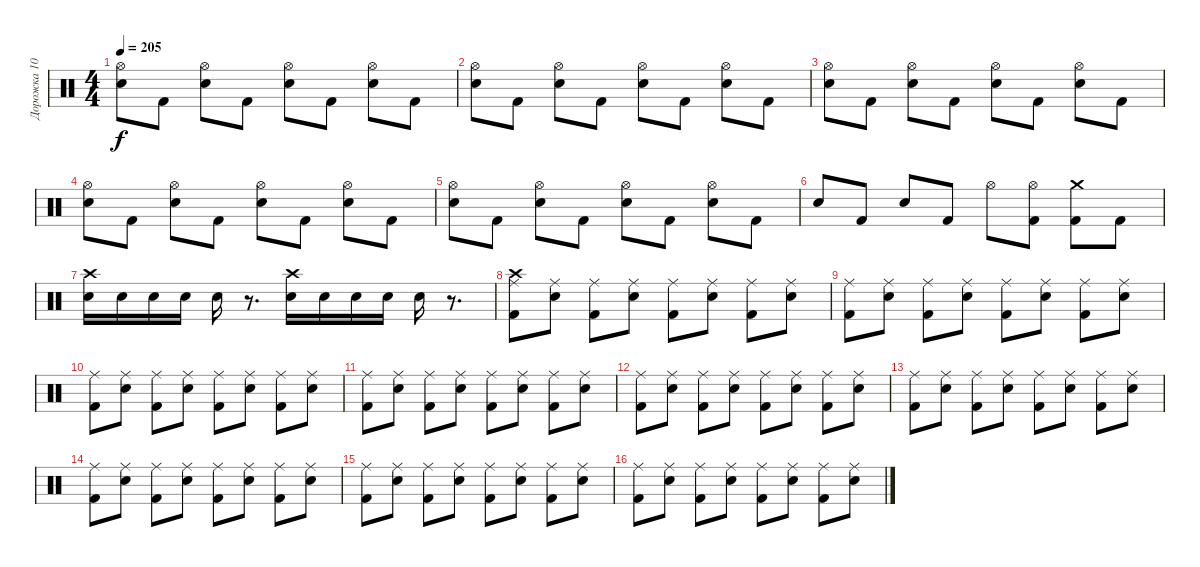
\track ("Дорожка 10" "Дорожка 10") {instrument percussion}
\staff {score}
\articulation defaults
\ts (4 4)
\tempo 205
\clef neutral
\ks c
("Hi-Hat (open)" "Electric Snare (hit)").8{dy f} "Kick (hit) 2".8 ("Hi-Hat (open)" "Electric Snare (hit)").8 "Kick (hit) 2".8 ("Hi-Hat (open)" "Electric Snare (hit)").8 "Kick (hit) 2".8 ("Hi-Hat (open)" "Electric Snare (hit)").8 "Kick (hit) 2".8 |
("Hi-Hat (open)" "Electric Snare (hit)").8 "Kick (hit) 2".8 ("Hi-Hat (open)" "Electric Snare (hit)").8 "Kick (hit) 2".8 ("Hi-Hat (open)" "Electric Snare (hit)").8 "Kick (hit) 2".8 ("Hi-Hat (open)" "Electric Snare (hit)").8 "Kick (hit) 2".8 |
("Hi-Hat (open)" "Electric Snare (hit)").8 "Kick (hit) 2".8 ("Hi-Hat (open)" "Electric Snare (hit)").8 "Kick (hit) 2".8 ("Hi-Hat (open)" "Electric Snare (hit)").8 "Kick (hit) 2".8 ("Hi-Hat (open)" "Electric Snare (hit)").8 "Kick (hit) 2".8 |
("Hi-Hat (open)" "Electric Snare (hit)").8 "Kick (hit) 2".8 ("Hi-Hat (open)" "Electric Snare (hit)").8 "Kick (hit) 2".8 ("Hi-Hat (open)" "Electric Snare (hit)").8 "Kick (hit) 2".8 ("Hi-Hat (open)" "Electric Snare (hit)").8 "Kick (hit) 2".8 |
("Hi-Hat (open)" "Electric Snare (hit)").8 "Kick (hit) 2".8 ("Hi-Hat (open)" "Electric Snare (hit)").8 "Kick (hit) 2".8 ("Hi-Hat (open)" "Electric Snare (hit)").8 "Kick (hit) 2".8 ("Hi-Hat (open)" "Electric Snare (hit)").8 "Kick (hit) 2".8 |
"Electric Snare (hit)".8 "Kick (hit) 2".8 "Electric Snare (hit)".8 "Kick (hit) 2".8 "Hi-Hat (open)".8 ("Hi-Hat (open)" "Kick (hit) 2").8 ("Crash medium (hit)" "Kick (hit) 2").8 "Kick (hit) 2".8 |
("Crash high (hit)" "Snare (hit) 2").16 "Snare (hit) 2".16 "Snare (hit) 2".16 "Snare (hit) 2".16 "Snare (hit) 2".16 r.8{d} ("Crash high (hit)" "Snare (hit) 2").16 "Snare (hit) 2".16 "Snare (hit) 2".16 "Snare (hit) 2".16 "Snare (hit) 2".16 r.8{d} |
("Crash high (hit)" "Ride (middle)" "Kick (hit) 2").8 ("Ride (middle)" "Snare (hit) 2").8 ("Ride (middle)" "Kick (hit) 2").8 ("Ride (middle)" "Snare (hit) 2").8 ("Ride (middle)" "Kick (hit) 2").8 ("Ride (middle)" "Snare (hit) 2").8 ("Ride (middle)" "Kick (hit) 2").8 ("Ride (middle)" "Snare (hit) 2").8 |
("Ride (middle)" "Kick (hit) 2").8 ("Ride (middle)" "Snare (hit) 2").8 ("Ride (middle)" "Kick (hit) 2").8 ("Ride (middle)" "Snare (hit) 2").8 ("Ride (middle)" "Kick (hit) 2").8 ("Ride (middle)" "Snare (hit) 2").8 ("Ride (middle)" "Kick (hit) 2").8 ("Ride (middle)" "Snare (hit) 2").8 |
("Ride (middle)" "Kick (hit) 2").8 ("Ride (middle)" "Snare (hit) 2").8 ("Ride (middle)" "Kick (hit) 2").8 ("Ride (middle)" "Snare (hit) 2").8 ("Ride (middle)" "Kick (hit) 2").8 ("Ride (middle)" "Snare (hit) 2").8 ("Ride (middle)" "Kick (hit) 2").8 ("Ride (middle)" "Snare (hit) 2").8 |
("Ride (middle)" "Kick (hit) 2").8 ("Ride (middle)" "Snare (hit) 2").8 ("Ride (middle)" "Kick (hit) 2").8 ("Ride (middle)" "Snare (hit) 2").8 ("Ride (middle)" "Kick (hit) 2").8 ("Ride (middle)" "Snare (hit) 2").8 ("Ride (middle)" "Kick (hit) 2").8 ("Ride (middle)" "Snare (hit) 2").8 |
("Ride (middle)" "Kick (hit) 2").8 ("Ride (middle)" "Snare (hit) 2").8 ("Ride (middle)" "Kick (hit) 2").8 ("Ride (middle)" "Snare (hit) 2").8 ("Ride (middle)" "Kick (hit) 2").8 ("Ride (middle)" "Snare (hit) 2").8 ("Ride (middle)" "Kick (hit) 2").8 ("Ride (middle)" "Snare (hit) 2").8 |
("Ride (middle)" "Kick (hit) 2").8 ("Ride (middle)" "Snare (hit) 2").8 ("Ride (middle)" "Kick (hit) 2").8 ("Ride (middle)" "Snare (hit) 2").8 ("Ride (middle)" "Kick (hit) 2").8 ("Ride (middle)" "Snare (hit) 2").8 ("Ride (middle)" "Kick (hit) 2").8 ("Ride (middle)" "Snare (hit) 2").8 |
("Ride (middle)" "Kick (hit) 2").8 ("Ride (middle)" "Snare (hit) 2").8 ("Ride (middle)" "Kick (hit) 2").8 ("Ride (middle)" "Snare (hit) 2").8 ("Ride (middle)" "Kick (hit) 2").8 ("Ride (middle)" "Snare (hit) 2").8 ("Ride (middle)" "Kick (hit) 2").8 ("Ride (middle)" "Snare (hit) 2").8 |
("Ride (middle)" "Kick (hit) 2").8 ("Ride (middle)" "Snare (hit) 2").8 ("Ride (middle)" "Kick (hit) 2").8 ("Ride (middle)" "Snare (hit) 2").8 ("Ride (middle)" "Kick (hit) 2").8 ("Ride (middle)" "Snare (hit) 2").8 ("Ride (middle)" "Kick (hit) 2").8 ("Ride (middle)" "Snare (hit) 2").8 |
("Ride (middle)" "Kick (hit) 2").8 ("Ride (middle)" "Snare (hit) 2").8 ("Ride (middle)" "Kick (hit) 2").8 ("Ride (middle)" "Snare (hit) 2").8 ("Ride (middle)" "Kick (hit) 2").8 ("Ride (middle)" "Snare (hit) 2").8 ("Ride (middle)" "Kick (hit) 2").8 ("Ride (middle)" "Snare (hit) 2").8
